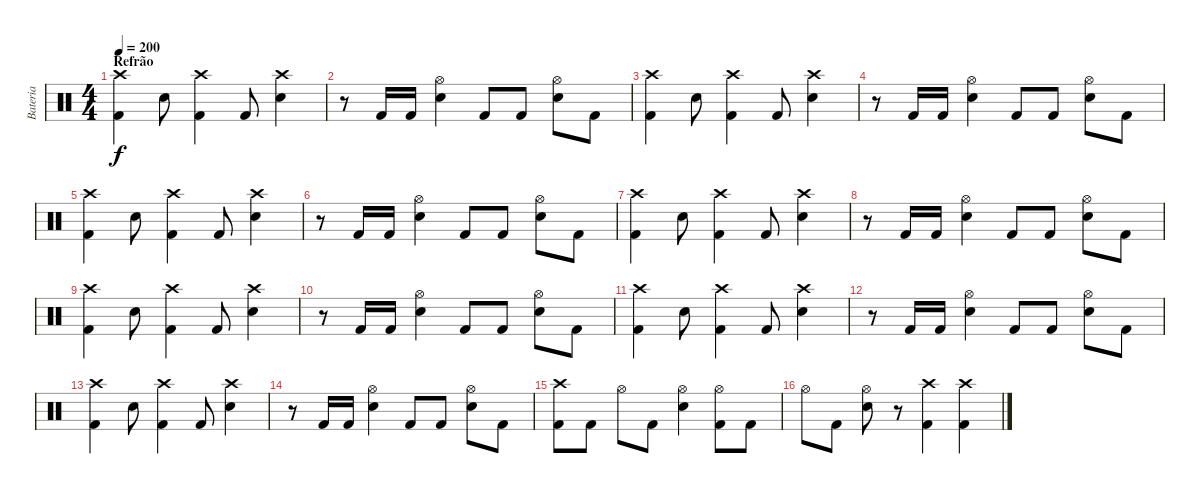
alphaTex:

\track ("Bateria" "Bateria") {instrument percussion}
\staff {score}
\articulation defaults
\ts (4 4)
\section ("" "Refrão")
\tempo 200
\clef neutral
\ks c
("Crash high (hit)" "Kick (hit) 2").4{dy f} "Electric Snare (hit)".8 ("Crash high (hit)" "Kick (hit) 2").4 "Kick (hit) 2".8 ("Crash high (hit)" "Electric Snare (hit)").4 |
r.8 "Kick (hit) 2".16 "Kick (hit) 2".16 ("Hi-Hat (open)" "Electric Snare (hit)").4 "Kick (hit) 2".8 "Kick (hit) 2".8 ("Hi-Hat (open)" "Electric Snare (hit)").8 "Kick (hit) 2".8 |
("Crash high (hit)" "Kick (hit) 2").4 "Electric Snare (hit)".8 ("Crash high (hit)" "Kick (hit) 2").4 "Kick (hit) 2".8 ("Crash high (hit)" "Electric Snare (hit)").4 |
r.8 "Kick (hit) 2".16 "Kick (hit) 2".16 ("Hi-Hat (open)" "Electric Snare (hit)").4 "Kick (hit) 2".8 "Kick (hit) 2".8 ("Hi-Hat (open)" "Electric Snare (hit)").8 "Kick (hit) 2".8 |
("Crash high (hit)" "Kick (hit) 2").4 "Electric Snare (hit)".8 ("Crash high (hit)" "Kick (hit) 2").4 "Kick (hit) 2".8 ("Crash high (hit)" "Electric Snare (hit)").4 |
r.8 "Kick (hit) 2".16 "Kick (hit) 2".16 ("Hi-Hat (open)" "Electric Snare (hit)").4 "Kick (hit) 2".8 "Kick (hit) 2".8 ("Hi-Hat (open)" "Electric Snare (hit)").8 "Kick (hit) 2".8 |
("Crash high (hit)" "Kick (hit) 2").4 "Electric Snare (hit)".8 ("Crash high (hit)" "Kick (hit) 2").4 "Kick (hit) 2".8 ("Crash high (hit)" "Electric Snare (hit)").4 |
r.8 "Kick (hit) 2".16 "Kick (hit) 2".16 ("Hi-Hat (open)" "Electric Snare (hit)").4 "Kick (hit) 2".8 "Kick (hit) 2".8 ("Hi-Hat (open)" "Electric Snare (hit)").8 "Kick (hit) 2".8 |
("Crash high (hit)" "Kick (hit) 2").4 "Electric Snare (hit)".8 ("Crash high (hit)" "Kick (hit) 2").4 "Kick (hit) 2".8 ("Crash high (hit)" "Electric Snare (hit)").4 |
r.8 "Kick (hit) 2".16 "Kick (hit) 2".16 ("Hi-Hat (open)" "Electric Snare (hit)").4 "Kick (hit) 2".8 "Kick (hit) 2".8 ("Hi-Hat (open)" "Electric Snare (hit)").8 "Kick (hit) 2".8 |
("Crash high (hit)" "Kick (hit) 2").4 "Electric Snare (hit)".8 ("Crash high (hit)" "Kick (hit) 2").4 "Kick (hit) 2".8 ("Crash high (hit)" "Electric Snare (hit)").4 |
r.8 "Kick (hit) 2".16 "Kick (hit) 2".16 ("Hi-Hat (open)" "Electric Snare (hit)").4 "Kick (hit) 2".8 "Kick (hit) 2".8 ("Hi-Hat (open)" "Electric Snare (hit)").8 "Kick (hit) 2".8 |
("Crash high (hit)" "Kick (hit) 2").4 "Electric Snare (hit)".8 ("Crash high (hit)" "Kick (hit) 2").4 "Kick (hit) 2".8 ("Crash high (hit)" "Electric Snare (hit)").4 |
r.8 "Kick (hit) 2".16 "Kick (hit) 2".16 ("Hi-Hat (open)" "Electric Snare (hit)").4 "Kick (hit) 2".8 "Kick (hit) 2".8 ("Hi-Hat (open)" "Electric Snare (hit)").8 "Kick (hit) 2".8 |
("Crash high (hit)" "Kick (hit) 2").8 "Kick (hit) 2".8 "Hi-Hat (open)".8 "Kick (hit) 2".8 ("Hi-Hat (open)" "Electric Snare (hit)").4 ("Hi-Hat (open)" "Kick (hit) 2").8 "Kick (hit) 2".8 |
"Hi-Hat (open)".8 "Kick (hit) 2".8 ("Hi-Hat (open)" "Electric Snare (hit)").8 r.8 ("Crash high (hit)" "Kick (hit) 2").4 ("Crash high (hit)" "Kick (hit) 2").4
